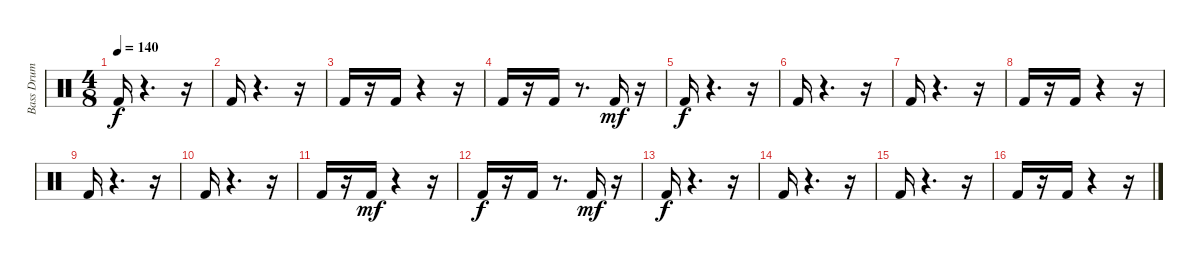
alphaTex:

\track ("Bass Drum" "Bass Drum") {instrument percussion}
\staff {score}
\articulation defaults
\ts (4 8)
\tempo 140
\clef neutral
\ks c "Kick (hit) 2".16{dy f}
r.4{d} r.16 |
"Kick (hit) 2".16 r.4{d} r.16 |
"Kick (hit) 2".16 r.16 "Kick (hit) 2".16 r.4 r.16 |
"Kick (hit) 2".16 r.16 "Kick (hit) 2".16 r.8{d} "Kick (hit) 2".16{dy mf} r.16 |
"Kick (hit) 2".16{dy f} r.4{d} r.16 |
"Kick (hit) 2".16 r.4{d} r.16 |
"Kick (hit) 2".16 r.4{d} r.16 |
"Kick (hit) 2".16 r.16 "Kick (hit) 2".16 r.4 r.16 |
"Kick (hit) 2".16 r.4{d} r.16 |
"Kick (hit) 2".16 r.4{d} r.16 |
"Kick (hit) 2".16 r.16 "Kick (hit) 2".16{dy mf} r.4 r.16 |
"Kick (hit) 2".16{dy f} r.16 "Kick (hit) 2".16 r.8{d} "Kick (hit) 2".16{dy mf} r.16 |
"Kick (hit) 2".16{dy f} r.4{d} r.16 |
"Kick (hit) 2".16 r.4{d} r.16 |
"Kick (hit) 2".16 r.4{d} r.16 |
"Kick (hit) 2".16 r.16 "Kick (hit) 2".16 r.4 r.16
